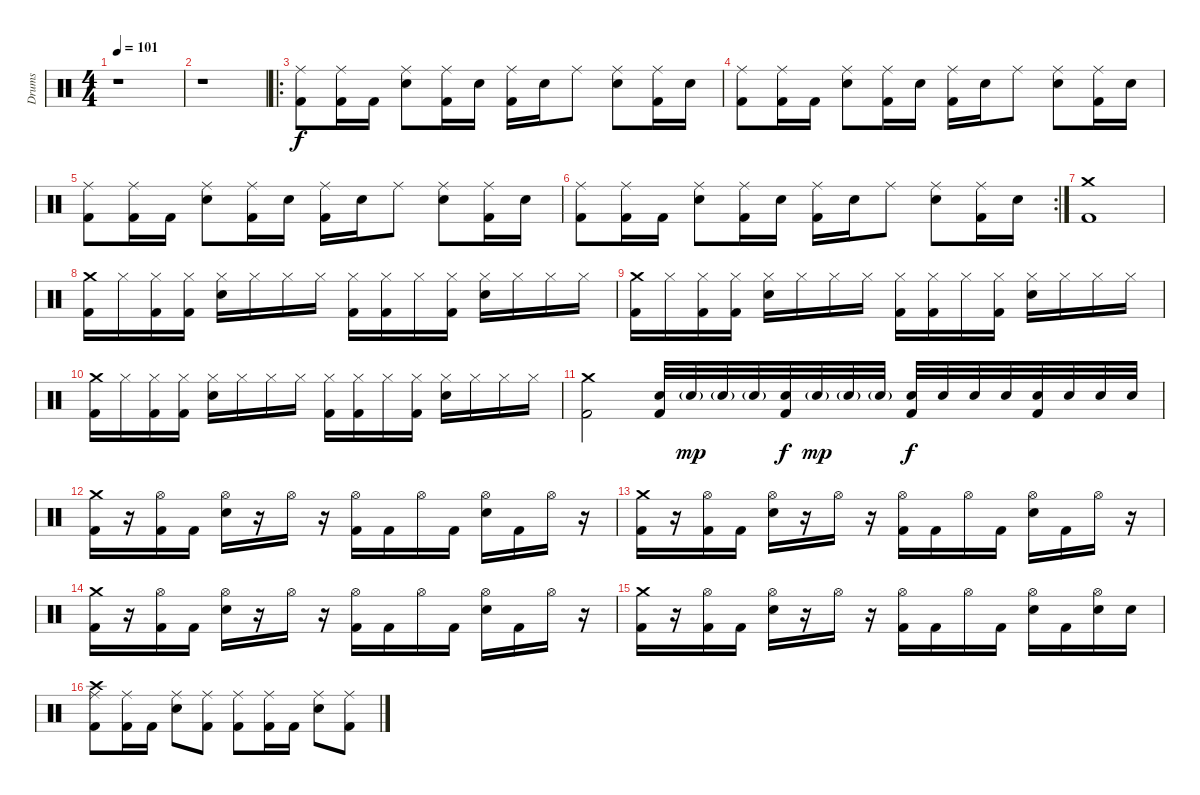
\track ("Drums" "Drums") {instrument percussion}
\staff {score}
\articulation defaults
\ts (4 4)
\tempo 101
\clef neutral
\ks c
r.1{dy f} |
r.1 |
\ro
("Ride (middle)" "Kick (hit) 2").8 ("Ride (middle)" "Kick (hit) 2").16 "Kick (hit) 2".16 ("Ride (middle)" "Electric Snare (hit)").8 ("Ride (middle)" "Kick (hit) 2").16 "Electric Snare (hit)".16 ("Ride (middle)" "Kick (hit) 2").16 "Electric Snare (hit)".16 "Ride (middle)".8 ("Ride (middle)" "Electric Snare (hit)").8 ("Ride (middle)" "Kick (hit) 2").16 "Electric Snare (hit)".16 |
("Ride (middle)" "Kick (hit) 2").8 ("Ride (middle)" "Kick (hit) 2").16 "Kick (hit) 2".16 ("Ride (middle)" "Electric Snare (hit)").8 ("Ride (middle)" "Kick (hit) 2").16 "Electric Snare (hit)".16 ("Ride (middle)" "Kick (hit) 2").16 "Electric Snare (hit)".16 "Ride (middle)".8 ("Ride (middle)" "Electric Snare (hit)").8 ("Ride (middle)" "Kick (hit) 2").16 "Electric Snare (hit)".16 |
("Ride (middle)" "Kick (hit) 2").8 ("Ride (middle)" "Kick (hit) 2").16 "Kick (hit) 2".16 ("Ride (middle)" "Electric Snare (hit)").8 ("Ride (middle)" "Kick (hit) 2").16 "Electric Snare (hit)".16 ("Ride (middle)" "Kick (hit) 2").16 "Electric Snare (hit)".16 "Ride (middle)".8 ("Ride (middle)" "Electric Snare (hit)").8 ("Ride (middle)" "Kick (hit) 2").16 "Electric Snare (hit)".16 |
\rc 2
("Ride (middle)" "Kick (hit) 2").8 ("Ride (middle)" "Kick (hit) 2").16 "Kick (hit) 2".16 ("Ride (middle)" "Electric Snare (hit)").8 ("Ride (middle)" "Kick (hit) 2").16 "Electric Snare (hit)".16 ("Ride (middle)" "Kick (hit) 2").16 "Electric Snare (hit)".16 "Ride (middle)".8 ("Ride (middle)" "Electric Snare (hit)").8 ("Ride (middle)" "Kick (hit) 2").16 "Electric Snare (hit)".16 |
("Crash medium (hit)" "Kick (hit) 2").1 |
("Crash medium (hit)" "Kick (hit) 2").16 "Hi-Hat (closed)".16 ("Hi-Hat (closed)" "Kick (hit) 2").16 ("Hi-Hat (closed)" "Kick (hit) 2").16 ("Hi-Hat (closed)" "Electric Snare (hit)").16 "Hi-Hat (closed)".16 "Hi-Hat (closed)".16 "Hi-Hat (closed)".16 ("Hi-Hat (closed)" "Kick (hit) 2").16 ("Hi-Hat (closed)" "Kick (hit) 2").16 "Hi-Hat (closed)".16 ("Hi-Hat (closed)" "Kick (hit) 2").16 ("Hi-Hat (closed)" "Electric Snare (hit)").16 "Hi-Hat (closed)".16 "Hi-Hat (closed)".16 "Hi-Hat (closed)".16 |
("Crash medium (hit)" "Kick (hit) 2").16 "Hi-Hat (closed)".16 ("Hi-Hat (closed)" "Kick (hit) 2").16 ("Hi-Hat (closed)" "Kick (hit) 2").16 ("Hi-Hat (closed)" "Electric Snare (hit)").16 "Hi-Hat (closed)".16 "Hi-Hat (closed)".16 "Hi-Hat (closed)".16 ("Hi-Hat (closed)" "Kick (hit) 2").16 ("Hi-Hat (closed)" "Kick (hit) 2").16 "Hi-Hat (closed)".16 ("Hi-Hat (closed)" "Kick (hit) 2").16 ("Hi-Hat (closed)" "Electric Snare (hit)").16 "Hi-Hat (closed)".16 "Hi-Hat (closed)".16 "Hi-Hat (closed)".16 |
("Crash medium (hit)" "Kick (hit) 2").16 "Hi-Hat (closed)".16 ("Hi-Hat (closed)" "Kick (hit) 2").16 ("Hi-Hat (closed)" "Kick (hit) 2").16 ("Hi-Hat (closed)" "Electric Snare (hit)").16 "Hi-Hat (closed)".16 "Hi-Hat (closed)".16 "Hi-Hat (closed)".16 ("Hi-Hat (closed)" "Kick (hit) 2").16 ("Hi-Hat (closed)" "Kick (hit) 2").16 "Hi-Hat (closed)".16 ("Hi-Hat (closed)" "Kick (hit) 2").16 ("Hi-Hat (closed)" "Electric Snare (hit)").16 "Hi-Hat (closed)".16 "Hi-Hat (closed)".16 "Hi-Hat (closed)".16 |
("Crash medium (hit)" "Kick (hit) 2").2 ("Electric Snare (hit)" "Kick (hit) 2").32 "Electric Snare (hit)"{g}.32{dy mp} "Electric Snare (hit)"{g}.32 "Electric Snare (hit)"{g}.32 ("Electric Snare (hit)" "Kick (hit) 2").32{dy f} "Electric Snare (hit)"{g}.32{dy mp} "Electric Snare (hit)"{g}.32 "Electric Snare (hit)"{g}.32 ("Electric Snare (hit)" "Kick (hit) 2").32{dy f} "Electric Snare (hit)".32 "Electric Snare (hit)".32 "Electric Snare (hit)".32 ("Electric Snare (hit)" "Kick (hit) 2").32 "Electric Snare (hit)".32 "Electric Snare (hit)".32 "Electric Snare (hit)".32 |
("Crash medium (hit)" "Kick (hit) 2").16 r.16 ("Hi-Hat (open)" "Kick (hit) 2").16 "Kick (hit) 2".16 ("Hi-Hat (open)" "Electric Snare (hit)").16 r.16 "Hi-Hat (open)".16 r.16 ("Hi-Hat (open)" "Kick (hit) 2").16 "Kick (hit) 2".16 "Hi-Hat (open)".16 "Kick (hit) 2".16 ("Hi-Hat (open)" "Electric Snare (hit)").16 "Kick (hit) 2".16 "Hi-Hat (open)".16 r.16 |
("Crash medium (hit)" "Kick (hit) 2").16 r.16 ("Hi-Hat (open)" "Kick (hit) 2").16 "Kick (hit) 2".16 ("Hi-Hat (open)" "Electric Snare (hit)").16 r.16 "Hi-Hat (open)".16 r.16 ("Hi-Hat (open)" "Kick (hit) 2").16 "Kick (hit) 2".16 "Hi-Hat (open)".16 "Kick (hit) 2".16 ("Hi-Hat (open)" "Electric Snare (hit)").16 "Kick (hit) 2".16 "Hi-Hat (open)".16 r.16 |
("Crash medium (hit)" "Kick (hit) 2").16 r.16 ("Hi-Hat (open)" "Kick (hit) 2").16 "Kick (hit) 2".16 ("Hi-Hat (open)" "Electric Snare (hit)").16 r.16 "Hi-Hat (open)".16 r.16 ("Hi-Hat (open)" "Kick (hit) 2").16 "Kick (hit) 2".16 "Hi-Hat (open)".16 "Kick (hit) 2".16 ("Hi-Hat (open)" "Electric Snare (hit)").16 "Kick (hit) 2".16 "Hi-Hat (open)".16 r.16 |
("Crash medium (hit)" "Kick (hit) 2").16 r.16 ("Hi-Hat (open)" "Kick (hit) 2").16 "Kick (hit) 2".16 ("Hi-Hat (open)" "Electric Snare (hit)").16 r.16 "Hi-Hat (open)".16 r.16 ("Hi-Hat (open)" "Kick (hit) 2").16 "Kick (hit) 2".16 "Hi-Hat (open)".16 "Kick (hit) 2".16 ("Hi-Hat (open)" "Electric Snare (hit)").16 "Kick (hit) 2".16 ("Hi-Hat (open)" "Electric Snare (hit)").16 "Electric Snare (hit)".16 |
("Crash high (hit)" "Ride (middle)" "Kick (hit) 2").8 ("Ride (middle)" "Kick (hit) 2").16 "Kick (hit) 2".16 ("Ride (middle)" "Electric Snare (hit)").8 ("Ride (middle)" "Kick (hit) 2").8 ("Ride (middle)" "Kick (hit) 2").8 ("Ride (middle)" "Kick (hit) 2").16 "Kick (hit) 2".16 ("Ride (middle)" "Electric Snare (hit)").8 ("Ride (middle)" "Kick (hit) 2").8
